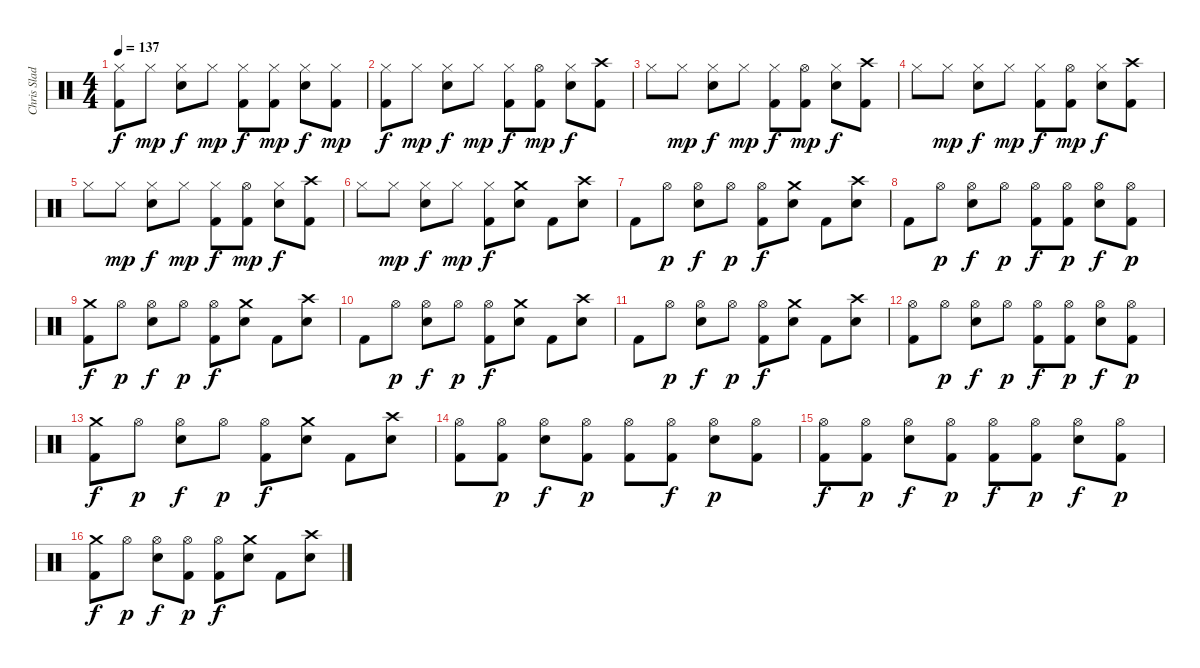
\track ("Chris Slade / Drums" "Chris Slad") {instrument percussion}
\staff {score}
\articulation defaults
\ts (4 4)
\tempo 137
\clef neutral
\ks c
("Hi-Hat (closed)" "Kick (hit) 2").8{dy f} "Hi-Hat (closed)".8{dy mp} ("Hi-Hat (closed)" "Electric Snare (hit)").8{dy f} "Hi-Hat (closed)".8{dy mp} ("Hi-Hat (closed)" "Kick (hit) 2").8{dy f} ("Hi-Hat (closed)" "Kick (hit) 2").8{dy mp} ("Hi-Hat (closed)" "Electric Snare (hit)").8{dy f} ("Hi-Hat (closed)" "Kick (hit) 2").8{dy mp} |
("Hi-Hat (closed)" "Kick (hit) 2").8{dy f} "Hi-Hat (closed)".8{dy mp} ("Hi-Hat (closed)" "Electric Snare (hit)").8{dy f} "Hi-Hat (closed)".8{dy mp} ("Hi-Hat (closed)" "Kick (hit) 2").8{dy f} ("Hi-Hat (open)" "Kick (hit) 2").8{dy mp} ("Hi-Hat (closed)" "Electric Snare (hit)").8{dy f} ("Crash high (hit)" "Kick (hit) 2").8 |
"Hi-Hat (closed)".8 "Hi-Hat (closed)".8{dy mp} ("Hi-Hat (closed)" "Electric Snare (hit)").8{dy f} "Hi-Hat (closed)".8{dy mp} ("Hi-Hat (closed)" "Kick (hit) 2").8{dy f} ("Hi-Hat (open)" "Kick (hit) 2").8{dy mp} ("Hi-Hat (closed)" "Electric Snare (hit)").8{dy f} ("Crash high (hit)" "Kick (hit) 2").8 |
"Hi-Hat (closed)".8 "Hi-Hat (closed)".8{dy mp} ("Hi-Hat (closed)" "Electric Snare (hit)").8{dy f} "Hi-Hat (closed)".8{dy mp} ("Hi-Hat (closed)" "Kick (hit) 2").8{dy f} ("Hi-Hat (open)" "Kick (hit) 2").8{dy mp} ("Hi-Hat (closed)" "Electric Snare (hit)").8{dy f} ("Crash high (hit)" "Kick (hit) 2").8 |
"Hi-Hat (closed)".8 "Hi-Hat (closed)".8{dy mp} ("Hi-Hat (closed)" "Electric Snare (hit)").8{dy f} "Hi-Hat (closed)".8{dy mp} ("Hi-Hat (closed)" "Kick (hit) 2").8{dy f} ("Hi-Hat (open)" "Kick (hit) 2").8{dy mp} ("Hi-Hat (closed)" "Electric Snare (hit)").8{dy f} ("Crash high (hit)" "Kick (hit) 2").8 |
"Hi-Hat (closed)".8 "Hi-Hat (closed)".8{dy mp} ("Hi-Hat (closed)" "Electric Snare (hit)").8{dy f} "Hi-Hat (closed)".8{dy mp} ("Hi-Hat (closed)" "Kick (hit) 2").8{dy f} ("Crash medium (hit)" "Electric Snare (hit)").8 "Kick (hit) 2".8 ("Crash high (hit)" "Electric Snare (hit)").8 |
"Kick (hit) 2".8 "Hi-Hat (open)".8{dy p} ("Hi-Hat (open)" "Electric Snare (hit)").8{dy f} "Hi-Hat (open)".8{dy p} ("Hi-Hat (open)" "Kick (hit) 2").8{dy f} ("Crash medium (hit)" "Electric Snare (hit)").8 "Kick (hit) 2".8 ("Crash high (hit)" "Electric Snare (hit)").8 |
"Kick (hit) 2".8 "Hi-Hat (open)".8{dy p} ("Hi-Hat (open)" "Electric Snare (hit)").8{dy f} "Hi-Hat (open)".8{dy p} ("Hi-Hat (open)" "Kick (hit) 2").8{dy f} ("Hi-Hat (open)" "Kick (hit) 2").8{dy p} ("Hi-Hat (open)" "Electric Snare (hit)").8{dy f} ("Hi-Hat (open)" "Kick (hit) 2").8{dy p} |
("Crash medium (hit)" "Kick (hit) 2").8{dy f} "Hi-Hat (open)".8{dy p} ("Hi-Hat (open)" "Electric Snare (hit)").8{dy f} "Hi-Hat (open)".8{dy p} ("Hi-Hat (open)" "Kick (hit) 2").8{dy f} ("Crash medium (hit)" "Electric Snare (hit)").8 "Kick (hit) 2".8 ("Crash high (hit)" "Electric Snare (hit)").8 |
"Kick (hit) 2".8 "Hi-Hat (open)".8{dy p} ("Hi-Hat (open)" "Electric Snare (hit)").8{dy f} "Hi-Hat (open)".8{dy p} ("Kick (hit) 2" "Hi-Hat (open)").8{dy f} ("Electric Snare (hit)" "Crash medium (hit)").8 "Kick (hit) 2".8 ("Electric Snare (hit)" "Crash high (hit)").8 |
"Kick (hit) 2".8 "Hi-Hat (open)".8{dy p} ("Hi-Hat (open)" "Electric Snare (hit)").8{dy f} "Hi-Hat (open)".8{dy p} ("Hi-Hat (open)" "Kick (hit) 2").8{dy f} ("Crash medium (hit)" "Electric Snare (hit)").8 "Kick (hit) 2".8 ("Crash high (hit)" "Electric Snare (hit)").8 |
("Kick (hit) 2" "Hi-Hat (open)").8 "Hi-Hat (open)".8{dy p} ("Hi-Hat (open)" "Electric Snare (hit)").8{dy f} "Hi-Hat (open)".8{dy p} ("Hi-Hat (open)" "Kick (hit) 2").8{dy f} ("Hi-Hat (open)" "Kick (hit) 2").8{dy p} ("Hi-Hat (open)" "Electric Snare (hit)").8{dy f} ("Hi-Hat (open)" "Kick (hit) 2").8{dy p} |
("Crash medium (hit)" "Kick (hit) 2").8{dy f} "Hi-Hat (open)".8{dy p} ("Hi-Hat (open)" "Electric Snare (hit)").8{dy f} "Hi-Hat (open)".8{dy p} ("Hi-Hat (open)" "Kick (hit) 2").8{dy f} ("Crash medium (hit)" "Electric Snare (hit)").8 "Kick (hit) 2".8 ("Crash high (hit)" "Electric Snare (hit)").8 |
("Hi-Hat (open)" "Kick (hit) 2").8 ("Hi-Hat (open)" "Kick (hit) 2").8{dy p} ("Hi-Hat (open)" "Electric Snare (hit)").8{dy f} ("Hi-Hat (open)" "Kick (hit) 2").8{dy p} ("Hi-Hat (open)" "Kick (hit) 2").8 ("Kick (hit) 2" "Hi-Hat (open)").8{dy f} ("Electric Snare (hit)" "Hi-Hat (open)").8{dy p} ("Kick (hit) 2" "Hi-Hat (open)").8 |
("Kick (hit) 2" "Hi-Hat (open)").8{dy f} ("Kick (hit) 2" "Hi-Hat (open)").8{dy p} ("Electric Snare (hit)" "Hi-Hat (open)").8{dy f} ("Kick (hit) 2" "Hi-Hat (open)").8{dy p} ("Kick (hit) 2" "Hi-Hat (open)").8{dy f} ("Kick (hit) 2" "Hi-Hat (open)").8{dy p} ("Electric Snare (hit)" "Hi-Hat (open)").8{dy f} ("Kick (hit) 2" "Hi-Hat (open)").8{dy p} |
("Crash medium (hit)" "Kick (hit) 2").8{dy f} "Hi-Hat (open)".8{dy p} ("Hi-Hat (open)" "Electric Snare (hit)").8{dy f} ("Kick (hit) 2" "Hi-Hat (open)").8{dy p} ("Hi-Hat (open)" "Kick (hit) 2").8{dy f} ("Crash medium (hit)" "Electric Snare (hit)").8 "Kick (hit) 2".8 ("Crash high (hit)" "Electric Snare (hit)").8
